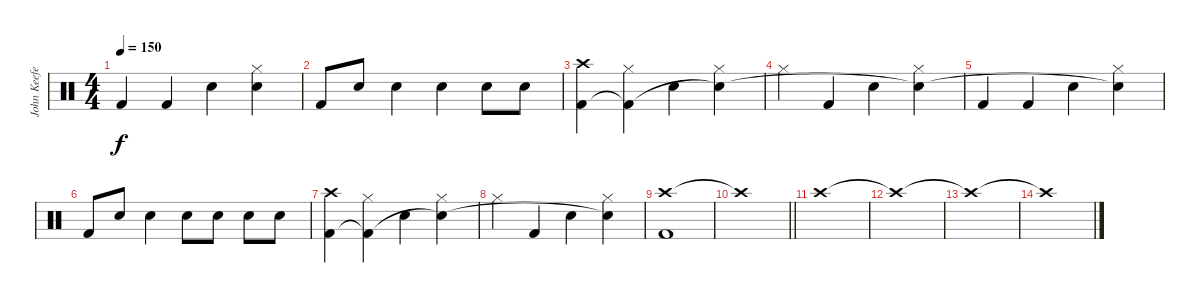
\track ("John Keefe (Percussion)" "John Keefe") {instrument percussion}
\staff {score}
\articulation defaults
\ts (4 4)
\tempo 150
\clef neutral
\ks c "Kick (hit) 2".4{dy f} "Kick (hit) 2".4 "Snare (hit) 2".4
("Hi-Hat (closed)" "Snare (hit) 2"{t}).4 |
"Kick (hit) 2".8 "Snare (hit) 2".8 "Snare (hit) 2".4 "Snare (hit) 2".4 "Snare (hit) 2".8 "Snare (hit) 2".8 |
("Crash high (hit)" "Kick (hit) 2").4 ("Hi-Hat (closed)" "Kick (hit) 2"{t}).4 "Snare (hit) 2".4 ("Hi-Hat (closed)" "Snare (hit) 2"{t}).4 |
"Hi-Hat (closed)".4 "Kick (hit) 2".4 "Snare (hit) 2".4 ("Hi-Hat (closed)" "Snare (hit) 2"{t}).4 |
"Kick (hit) 2".4 "Kick (hit) 2".4 "Snare (hit) 2".4 ("Hi-Hat (closed)" "Snare (hit) 2"{t}).4 |
"Kick (hit) 2".8 "Snare (hit) 2".8 "Snare (hit) 2".4 "Snare (hit) 2".8 "Snare (hit) 2".8 "Snare (hit) 2".8 "Snare (hit) 2".8 |
("Crash high (hit)" "Kick (hit) 2").4 ("Hi-Hat (closed)" "Kick (hit) 2"{t}).4 "Snare (hit) 2".4 ("Hi-Hat (closed)" "Snare (hit) 2"{t}).4 |
"Hi-Hat (closed)".4 "Kick (hit) 2".4 "Snare (hit) 2".4 ("Hi-Hat (closed)" "Snare (hit) 2"{t}).4 |
("Crash high (hit)" "Kick (hit) 2").1 |
\barLineRight lightlight "Crash high (hit)"{t}.1
|
"Crash high (hit)".1 |
"Crash high (hit)"{t}.1 |
"Crash high (hit)"{t}.1 |
"Crash high (hit)"{t}.1
